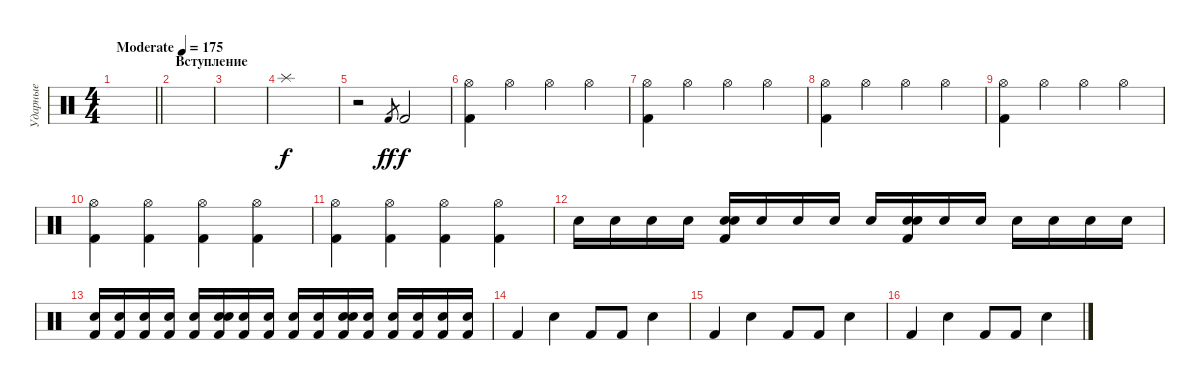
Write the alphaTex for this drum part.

\track ("Ударные" "Ударные") {instrument percussion}
\staff {score}
\articulation defaults
\ts (4 4)
\tempo (175 "Moderate")
\clef neutral
\barLineRight lightlight
\ks c
|
\section ("" "Вступление")
|
|
"Splash (hit)".1 |
r.2 "Kick (hit) 2".8{gr dy ff} "Kick (hit) 2".2{dy f} |
("Hi-Hat (open)" "Kick (hit) 2").4 "Hi-Hat (open)".4 "Hi-Hat (open)".4 "Hi-Hat (open)".4 |
("Hi-Hat (open)" "Kick (hit) 2").4 "Hi-Hat (open)".4 "Hi-Hat (open)".4 "Hi-Hat (open)".4 |
("Hi-Hat (open)" "Kick (hit) 2").4 "Hi-Hat (open)".4 "Hi-Hat (open)".4 "Hi-Hat (open)".4 |
("Hi-Hat (open)" "Kick (hit) 2").4 "Hi-Hat (open)".4 "Hi-Hat (open)".4 "Hi-Hat (open)".4 |
("Hi-Hat (open)" "Kick (hit) 2").4 ("Hi-Hat (open)" "Kick (hit) 2").4 ("Hi-Hat (open)" "Kick (hit) 2").4 ("Hi-Hat (open)" "Kick (hit) 2").4 |
("Hi-Hat (open)" "Kick (hit) 2").4 ("Hi-Hat (open)" "Kick (hit) 2").4 ("Hi-Hat (open)" "Kick (hit) 2").4 ("Hi-Hat (open)" "Kick (hit) 2").4 |
"Electric Snare (hit)".16 "Electric Snare (hit)".16 "Electric Snare (hit)".16 "Electric Snare (hit)".16 ("Snare (hit) 2" "Electric Snare (hit)" "Kick (hit) 2").16 "Electric Snare (hit)".16 "Electric Snare (hit)".16 "Electric Snare (hit)".16 "Electric Snare (hit)".16 ("Snare (hit) 2" "Electric Snare (hit)" "Kick (hit) 2").16 "Electric Snare (hit)".16 "Electric Snare (hit)".16 "Electric Snare (hit)".16 "Electric Snare (hit)".16 "Electric Snare (hit)".16 "Electric Snare (hit)".16 |
("Electric Snare (hit)" "Kick (hit) 2").16 ("Electric Snare (hit)" "Kick (hit) 2").16 ("Electric Snare (hit)" "Kick (hit) 2").16 ("Electric Snare (hit)" "Kick (hit) 2").16 ("Electric Snare (hit)" "Kick (hit) 2").16 ("Snare (hit) 2" "Electric Snare (hit)" "Kick (hit) 2").16 ("Electric Snare (hit)" "Kick (hit) 2").16 ("Electric Snare (hit)" "Kick (hit) 2").16 ("Electric Snare (hit)" "Kick (hit) 2").16 ("Electric Snare (hit)" "Kick (hit) 2").16 ("Snare (hit) 2" "Electric Snare (hit)" "Kick (hit) 2").16 ("Electric Snare (hit)" "Kick (hit) 2").16 ("Electric Snare (hit)" "Kick (hit) 2").16 ("Electric Snare (hit)" "Kick (hit) 2").16 ("Electric Snare (hit)" "Kick (hit) 2").16 ("Electric Snare (hit)" "Kick (hit) 2").16 |
"Kick (hit) 2".4 "Electric Snare (hit)".4 "Kick (hit) 2".8 "Kick (hit) 2".8 "Electric Snare (hit)".4 |
"Kick (hit) 2".4 "Electric Snare (hit)".4 "Kick (hit) 2".8 "Kick (hit) 2".8 "Electric Snare (hit)".4 |
"Kick (hit) 2".4 "Electric Snare (hit)".4 "Kick (hit) 2".8 "Kick (hit) 2".8 "Electric Snare (hit)".4
